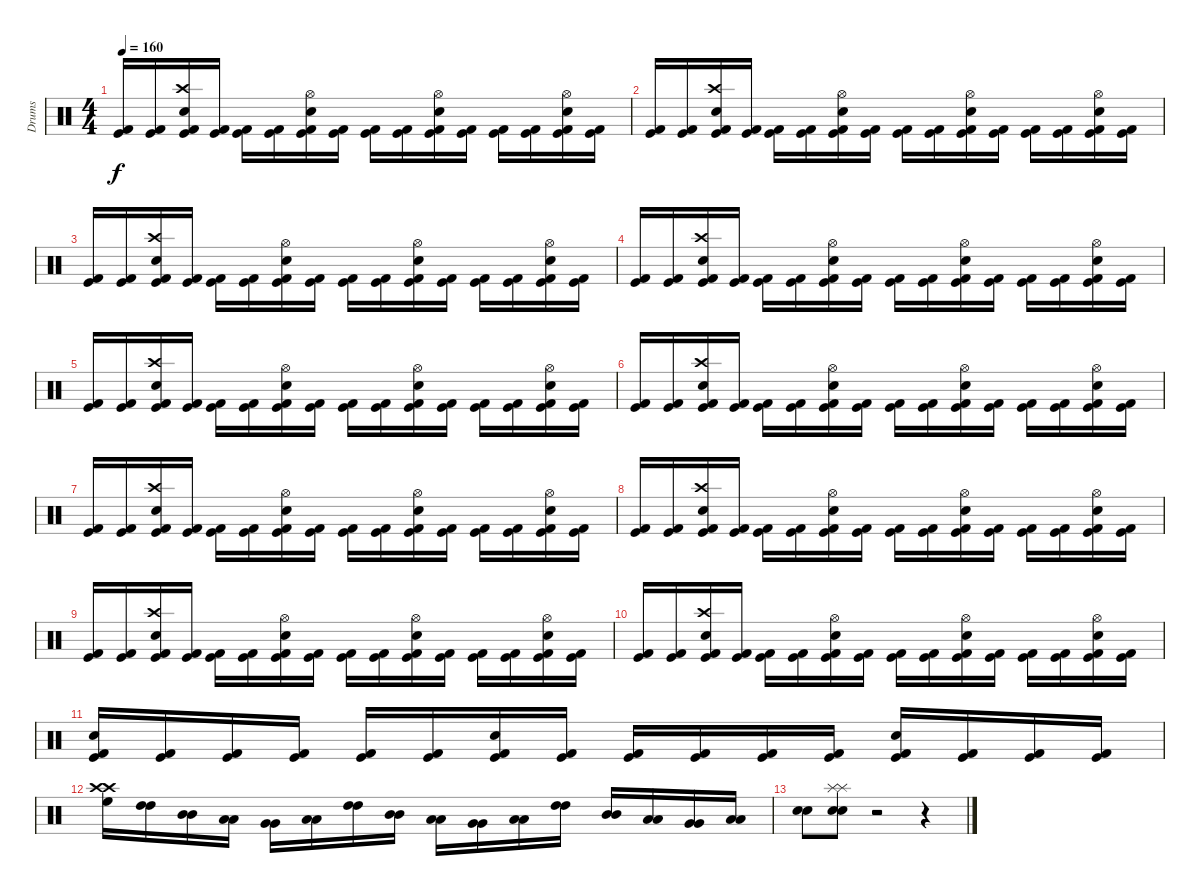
\track ("Drums" "Drums") {instrument percussion}
\staff {score}
\articulation defaults
\ts (4 4)
\tempo 160
\clef neutral
\ks c
("Kick (hit) 2" "Kick (hit)").16{dy f} ("Kick (hit) 2" "Kick (hit)").16 ("Kick (hit) 2" "Kick (hit)" "Crash high (hit)" "Snare (hit) 2").16 ("Kick (hit) 2" "Kick (hit)").16 ("Kick (hit) 2" "Kick (hit)").16 ("Kick (hit) 2" "Kick (hit)").16 ("Kick (hit) 2" "Kick (hit)" "Hi-Hat (open)" "Snare (hit) 2").16 ("Kick (hit) 2" "Kick (hit)").16 ("Kick (hit) 2" "Kick (hit)").16 ("Kick (hit) 2" "Kick (hit)").16 ("Kick (hit) 2" "Kick (hit)" "Hi-Hat (open)" "Snare (hit) 2").16 ("Kick (hit) 2" "Kick (hit)").16 ("Kick (hit) 2" "Kick (hit)").16 ("Kick (hit) 2" "Kick (hit)").16 ("Kick (hit) 2" "Kick (hit)" "Hi-Hat (open)" "Snare (hit) 2").16 ("Kick (hit) 2" "Kick (hit)").16 |
("Kick (hit) 2" "Kick (hit)").16 ("Kick (hit) 2" "Kick (hit)").16 ("Kick (hit) 2" "Kick (hit)" "Crash high (hit)" "Snare (hit) 2").16 ("Kick (hit) 2" "Kick (hit)").16 ("Kick (hit) 2" "Kick (hit)").16 ("Kick (hit) 2" "Kick (hit)").16 ("Kick (hit) 2" "Kick (hit)" "Hi-Hat (open)" "Snare (hit) 2").16 ("Kick (hit) 2" "Kick (hit)").16 ("Kick (hit) 2" "Kick (hit)").16 ("Kick (hit) 2" "Kick (hit)").16 ("Kick (hit) 2" "Kick (hit)" "Hi-Hat (open)" "Snare (hit) 2").16 ("Kick (hit) 2" "Kick (hit)").16 ("Kick (hit) 2" "Kick (hit)").16 ("Kick (hit) 2" "Kick (hit)").16 ("Kick (hit) 2" "Kick (hit)" "Hi-Hat (open)" "Snare (hit) 2").16 ("Kick (hit) 2" "Kick (hit)").16 |
("Kick (hit) 2" "Kick (hit)").16 ("Kick (hit) 2" "Kick (hit)").16 ("Kick (hit) 2" "Kick (hit)" "Crash high (hit)" "Snare (hit) 2").16 ("Kick (hit) 2" "Kick (hit)").16 ("Kick (hit) 2" "Kick (hit)").16 ("Kick (hit) 2" "Kick (hit)").16 ("Kick (hit) 2" "Kick (hit)" "Hi-Hat (open)" "Snare (hit) 2").16 ("Kick (hit) 2" "Kick (hit)").16 ("Kick (hit) 2" "Kick (hit)").16 ("Kick (hit) 2" "Kick (hit)").16 ("Kick (hit) 2" "Kick (hit)" "Hi-Hat (open)" "Snare (hit) 2").16 ("Kick (hit) 2" "Kick (hit)").16 ("Kick (hit) 2" "Kick (hit)").16 ("Kick (hit) 2" "Kick (hit)").16 ("Kick (hit) 2" "Kick (hit)" "Hi-Hat (open)" "Snare (hit) 2").16 ("Kick (hit) 2" "Kick (hit)").16 |
("Kick (hit) 2" "Kick (hit)").16 ("Kick (hit) 2" "Kick (hit)").16 ("Kick (hit) 2" "Kick (hit)" "Crash high (hit)" "Snare (hit) 2").16 ("Kick (hit) 2" "Kick (hit)").16 ("Kick (hit) 2" "Kick (hit)").16 ("Kick (hit) 2" "Kick (hit)").16 ("Kick (hit) 2" "Kick (hit)" "Hi-Hat (open)" "Snare (hit) 2").16 ("Kick (hit) 2" "Kick (hit)").16 ("Kick (hit) 2" "Kick (hit)").16 ("Kick (hit) 2" "Kick (hit)").16 ("Kick (hit) 2" "Kick (hit)" "Hi-Hat (open)" "Snare (hit) 2").16 ("Kick (hit) 2" "Kick (hit)").16 ("Kick (hit) 2" "Kick (hit)").16 ("Kick (hit) 2" "Kick (hit)").16 ("Kick (hit) 2" "Kick (hit)" "Hi-Hat (open)" "Snare (hit) 2").16 ("Kick (hit) 2" "Kick (hit)").16 |
("Kick (hit) 2" "Kick (hit)").16 ("Kick (hit) 2" "Kick (hit)").16 ("Kick (hit) 2" "Kick (hit)" "Crash high (hit)" "Snare (hit) 2").16 ("Kick (hit) 2" "Kick (hit)").16 ("Kick (hit) 2" "Kick (hit)").16 ("Kick (hit) 2" "Kick (hit)").16 ("Kick (hit) 2" "Kick (hit)" "Hi-Hat (open)" "Snare (hit) 2").16 ("Kick (hit) 2" "Kick (hit)").16 ("Kick (hit) 2" "Kick (hit)").16 ("Kick (hit) 2" "Kick (hit)").16 ("Kick (hit) 2" "Kick (hit)" "Hi-Hat (open)" "Snare (hit) 2").16 ("Kick (hit) 2" "Kick (hit)").16 ("Kick (hit) 2" "Kick (hit)").16 ("Kick (hit) 2" "Kick (hit)").16 ("Kick (hit) 2" "Kick (hit)" "Hi-Hat (open)" "Snare (hit) 2").16 ("Kick (hit) 2" "Kick (hit)").16 |
("Kick (hit) 2" "Kick (hit)").16 ("Kick (hit) 2" "Kick (hit)").16 ("Kick (hit) 2" "Kick (hit)" "Crash high (hit)" "Snare (hit) 2").16 ("Kick (hit) 2" "Kick (hit)").16 ("Kick (hit) 2" "Kick (hit)").16 ("Kick (hit) 2" "Kick (hit)").16 ("Kick (hit) 2" "Kick (hit)" "Hi-Hat (open)" "Snare (hit) 2").16 ("Kick (hit) 2" "Kick (hit)").16 ("Kick (hit) 2" "Kick (hit)").16 ("Kick (hit) 2" "Kick (hit)").16 ("Kick (hit) 2" "Kick (hit)" "Hi-Hat (open)" "Snare (hit) 2").16 ("Kick (hit) 2" "Kick (hit)").16 ("Kick (hit) 2" "Kick (hit)").16 ("Kick (hit) 2" "Kick (hit)").16 ("Kick (hit) 2" "Kick (hit)" "Hi-Hat (open)" "Snare (hit) 2").16 ("Kick (hit) 2" "Kick (hit)").16 |
("Kick (hit) 2" "Kick (hit)").16 ("Kick (hit) 2" "Kick (hit)").16 ("Kick (hit) 2" "Kick (hit)" "Crash high (hit)" "Snare (hit) 2").16 ("Kick (hit) 2" "Kick (hit)").16 ("Kick (hit) 2" "Kick (hit)").16 ("Kick (hit) 2" "Kick (hit)").16 ("Kick (hit) 2" "Kick (hit)" "Hi-Hat (open)" "Snare (hit) 2").16 ("Kick (hit) 2" "Kick (hit)").16 ("Kick (hit) 2" "Kick (hit)").16 ("Kick (hit) 2" "Kick (hit)").16 ("Kick (hit) 2" "Kick (hit)" "Hi-Hat (open)" "Snare (hit) 2").16 ("Kick (hit) 2" "Kick (hit)").16 ("Kick (hit) 2" "Kick (hit)").16 ("Kick (hit) 2" "Kick (hit)").16 ("Kick (hit) 2" "Kick (hit)" "Hi-Hat (open)" "Snare (hit) 2").16 ("Kick (hit) 2" "Kick (hit)").16 |
("Kick (hit) 2" "Kick (hit)").16 ("Kick (hit) 2" "Kick (hit)").16 ("Kick (hit) 2" "Kick (hit)" "Crash high (hit)" "Snare (hit) 2").16 ("Kick (hit) 2" "Kick (hit)").16 ("Kick (hit) 2" "Kick (hit)").16 ("Kick (hit) 2" "Kick (hit)").16 ("Kick (hit) 2" "Kick (hit)" "Hi-Hat (open)" "Snare (hit) 2").16 ("Kick (hit) 2" "Kick (hit)").16 ("Kick (hit) 2" "Kick (hit)").16 ("Kick (hit) 2" "Kick (hit)").16 ("Kick (hit) 2" "Kick (hit)" "Hi-Hat (open)" "Snare (hit) 2").16 ("Kick (hit) 2" "Kick (hit)").16 ("Kick (hit) 2" "Kick (hit)").16 ("Kick (hit) 2" "Kick (hit)").16 ("Kick (hit) 2" "Kick (hit)" "Hi-Hat (open)" "Snare (hit) 2").16 ("Kick (hit) 2" "Kick (hit)").16 |
("Kick (hit) 2" "Kick (hit)").16 ("Kick (hit) 2" "Kick (hit)").16 ("Kick (hit) 2" "Kick (hit)" "Crash high (hit)" "Snare (hit) 2").16 ("Kick (hit) 2" "Kick (hit)").16 ("Kick (hit) 2" "Kick (hit)").16 ("Kick (hit) 2" "Kick (hit)").16 ("Kick (hit) 2" "Kick (hit)" "Hi-Hat (open)" "Snare (hit) 2").16 ("Kick (hit) 2" "Kick (hit)").16 ("Kick (hit) 2" "Kick (hit)").16 ("Kick (hit) 2" "Kick (hit)").16 ("Kick (hit) 2" "Kick (hit)" "Hi-Hat (open)" "Snare (hit) 2").16 ("Kick (hit) 2" "Kick (hit)").16 ("Kick (hit) 2" "Kick (hit)").16 ("Kick (hit) 2" "Kick (hit)").16 ("Kick (hit) 2" "Kick (hit)" "Hi-Hat (open)" "Snare (hit) 2").16 ("Kick (hit) 2" "Kick (hit)").16 |
("Kick (hit) 2" "Kick (hit)").16 ("Kick (hit) 2" "Kick (hit)").16 ("Kick (hit) 2" "Kick (hit)" "Crash high (hit)" "Snare (hit) 2").16 ("Kick (hit) 2" "Kick (hit)").16 ("Kick (hit) 2" "Kick (hit)").16 ("Kick (hit) 2" "Kick (hit)").16 ("Kick (hit) 2" "Kick (hit)" "Hi-Hat (open)" "Snare (hit) 2").16 ("Kick (hit) 2" "Kick (hit)").16 ("Kick (hit) 2" "Kick (hit)").16 ("Kick (hit) 2" "Kick (hit)").16 ("Kick (hit) 2" "Kick (hit)" "Hi-Hat (open)" "Snare (hit) 2").16 ("Kick (hit) 2" "Kick (hit)").16 ("Kick (hit) 2" "Kick (hit)").16 ("Kick (hit) 2" "Kick (hit)").16 ("Kick (hit) 2" "Kick (hit)" "Hi-Hat (open)" "Snare (hit) 2").16 ("Kick (hit) 2" "Kick (hit)").16 |
("Kick (hit) 2" "Kick (hit)" "Snare (hit) 2").16 ("Kick (hit) 2" "Kick (hit)").16 ("Kick (hit) 2" "Kick (hit)").16 ("Kick (hit) 2" "Kick (hit)").16 ("Kick (hit) 2" "Kick (hit)").16 ("Kick (hit) 2" "Kick (hit)").16 ("Kick (hit) 2" "Kick (hit)" "Snare (hit) 2").16 ("Kick (hit) 2" "Kick (hit)").16 ("Kick (hit) 2" "Kick (hit)").16 ("Kick (hit) 2" "Kick (hit)").16 ("Kick (hit) 2" "Kick (hit)").16 ("Kick (hit) 2" "Kick (hit)").16 ("Kick (hit) 2" "Kick (hit)" "Snare (hit) 2").16 ("Kick (hit) 2" "Kick (hit)").16 ("Kick (hit) 2" "Kick (hit)").16 ("Kick (hit) 2" "Kick (hit)").16 |
("Crash high (hit)" "Crash high (hit)" "High Floor Tom (hit)").16 ("High Tom (hit)" "High Tom (hit)").16 ("Mid Tom (hit)" "Mid Tom (hit)").16 ("Low Tom (hit)" "Low Tom (hit)").16 ("Very Low Tom (hit)" "Very Low Tom (hit)").16 ("Low Floor Tom (hit)" "Low Floor Tom (hit)").16 ("High Tom (hit)" "High Tom (hit)").16 ("Mid Tom (hit)" "Mid Tom (hit)").16 ("Low Tom (hit)" "Low Tom (hit)").16 ("Very Low Tom (hit)" "Very Low Tom (hit)").16 ("Low Floor Tom (hit)" "Low Floor Tom (hit)").16 ("High Tom (hit)" "High Tom (hit)").16 ("Mid Tom (hit)" "Mid Tom (hit)").16 ("Low Tom (hit)" "Low Tom (hit)").16 ("Very Low Tom (hit)" "Very Low Tom (hit)").16 ("Low Floor Tom (hit)" "Low Floor Tom (hit)").16 |
("Snare (hit) 2" "Snare (hit) 2").8 ("Snare (hit) 2" "Snare (hit) 2" "Splash (hit)" "Splash (hit)").8 r.2 r.4
